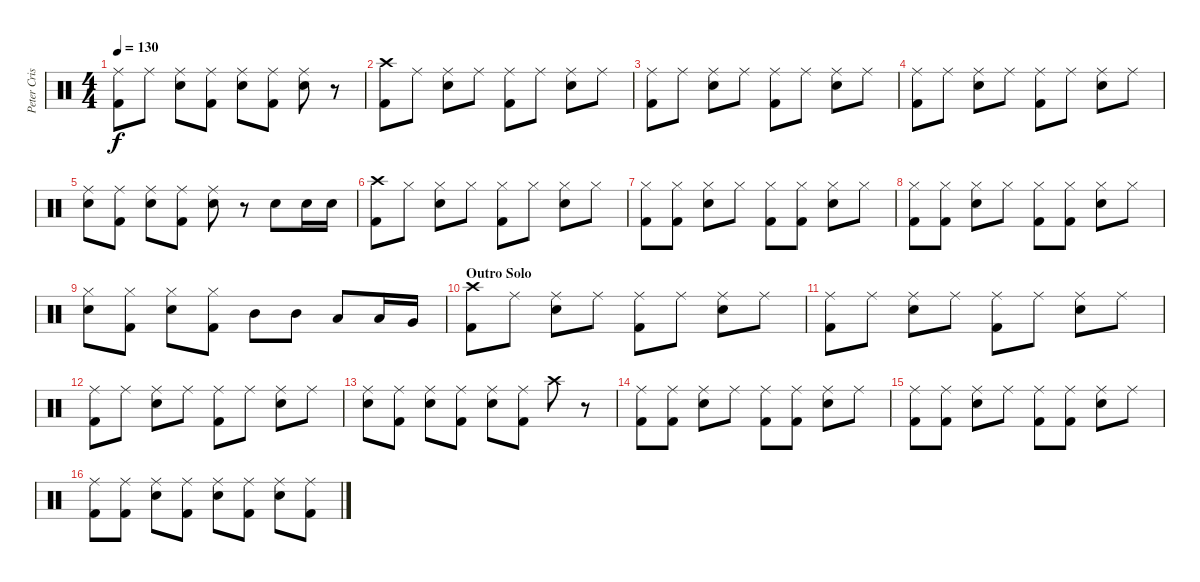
\track ("Peter Criss" "Peter Cris") {instrument percussion}
\staff {score}
\articulation defaults
\ts (4 4)
\tempo 130
\clef neutral
\ks c
("Ride (middle)" "Kick (hit) 2").8{dy f} "Ride (middle)".8 ("Ride (middle)" "Electric Snare (hit)").8 ("Ride (middle)" "Kick (hit) 2").8 ("Ride (middle)" "Electric Snare (hit)").8 ("Ride (middle)" "Kick (hit) 2").8 ("Ride (middle)" "Electric Snare (hit)").8 r.8 |
("Crash high (hit)" "Kick (hit) 2").8 "Ride (middle)".8 ("Ride (middle)" "Electric Snare (hit)").8 "Ride (middle)".8 ("Ride (middle)" "Kick (hit) 2").8 "Ride (middle)".8 ("Ride (middle)" "Electric Snare (hit)").8 "Ride (middle)".8 |
("Ride (middle)" "Kick (hit) 2").8 "Ride (middle)".8 ("Ride (middle)" "Electric Snare (hit)").8 "Ride (middle)".8 ("Ride (middle)" "Kick (hit) 2").8 "Ride (middle)".8 ("Ride (middle)" "Electric Snare (hit)").8 "Ride (middle)".8 |
("Ride (middle)" "Kick (hit) 2").8 "Ride (middle)".8 ("Ride (middle)" "Electric Snare (hit)").8 "Ride (middle)".8 ("Ride (middle)" "Kick (hit) 2").8 "Ride (middle)".8 ("Ride (middle)" "Electric Snare (hit)").8 "Ride (middle)".8 |
("Ride (middle)" "Electric Snare (hit)").8 ("Ride (middle)" "Kick (hit) 2").8 ("Ride (middle)" "Electric Snare (hit)").8 ("Ride (middle)" "Kick (hit) 2").8 ("Ride (middle)" "Electric Snare (hit)").8 r.8 "Electric Snare (hit)".8 "Electric Snare (hit)".16 "Electric Snare (hit)".16 |
("Crash high (hit)" "Kick (hit) 2").8 "Hi-Hat (closed)".8 ("Hi-Hat (closed)" "Electric Snare (hit)").8 "Hi-Hat (closed)".8 ("Hi-Hat (closed)" "Kick (hit) 2").8 "Hi-Hat (closed)".8 ("Hi-Hat (closed)" "Electric Snare (hit)").8 "Hi-Hat (closed)".8 |
("Hi-Hat (closed)" "Kick (hit) 2").8 ("Hi-Hat (closed)" "Kick (hit) 2").8 ("Hi-Hat (closed)" "Electric Snare (hit)").8 "Hi-Hat (closed)".8 ("Hi-Hat (closed)" "Kick (hit) 2").8 ("Hi-Hat (closed)" "Kick (hit) 2").8 ("Hi-Hat (closed)" "Electric Snare (hit)").8 "Hi-Hat (closed)".8 |
("Hi-Hat (closed)" "Kick (hit) 2").8 ("Hi-Hat (closed)" "Kick (hit) 2").8 ("Hi-Hat (closed)" "Electric Snare (hit)").8 "Hi-Hat (closed)".8 ("Hi-Hat (closed)" "Kick (hit) 2").8 ("Hi-Hat (closed)" "Kick (hit) 2").8 ("Hi-Hat (closed)" "Electric Snare (hit)").8 "Hi-Hat (closed)".8 |
("Hi-Hat (closed)" "Electric Snare (hit)").8 ("Hi-Hat (closed)" "Kick (hit) 2").8 ("Hi-Hat (closed)" "Electric Snare (hit)").8 ("Hi-Hat (closed)" "Kick (hit) 2").8 "Mid Tom (hit)".8 "Mid Tom (hit)".8 "Low Tom (hit)".8 "Low Tom (hit)".16 "Very Low Tom (hit)".16 |
\section ("" "Outro Solo")
("Crash high (hit)" "Kick (hit) 2").8 "Ride (middle)".8 ("Ride (middle)" "Electric Snare (hit)").8 "Ride (middle)".8 ("Ride (middle)" "Kick (hit) 2").8 "Ride (middle)".8 ("Ride (middle)" "Electric Snare (hit)").8 "Ride (middle)".8 |
("Ride (middle)" "Kick (hit) 2").8 "Ride (middle)".8 ("Ride (middle)" "Electric Snare (hit)").8 "Ride (middle)".8 ("Ride (middle)" "Kick (hit) 2").8 "Ride (middle)".8 ("Ride (middle)" "Electric Snare (hit)").8 "Ride (middle)".8 |
("Ride (middle)" "Kick (hit) 2").8 "Ride (middle)".8 ("Ride (middle)" "Electric Snare (hit)").8 "Ride (middle)".8 ("Ride (middle)" "Kick (hit) 2").8 "Ride (middle)".8 ("Ride (middle)" "Electric Snare (hit)").8 "Ride (middle)".8 |
("Ride (middle)" "Electric Snare (hit)").8 ("Ride (middle)" "Kick (hit) 2").8 ("Ride (middle)" "Electric Snare (hit)").8 ("Ride (middle)" "Kick (hit) 2").8 ("Ride (middle)" "Electric Snare (hit)").8 ("Ride (middle)" "Kick (hit) 2").8 "Crash high (hit)".8 r.8 |
("Ride (middle)" "Kick (hit) 2").8 ("Ride (middle)" "Kick (hit) 2").8 ("Ride (middle)" "Electric Snare (hit)").8 "Ride (middle)".8 ("Ride (middle)" "Kick (hit) 2").8 ("Ride (middle)" "Kick (hit) 2").8 ("Ride (middle)" "Electric Snare (hit)").8 "Ride (middle)".8 |
("Ride (middle)" "Kick (hit) 2").8 ("Ride (middle)" "Kick (hit) 2").8 ("Ride (middle)" "Electric Snare (hit)").8 "Ride (middle)".8 ("Ride (middle)" "Kick (hit) 2").8 ("Ride (middle)" "Kick (hit) 2").8 ("Ride (middle)" "Electric Snare (hit)").8 "Ride (middle)".8 |
("Ride (middle)" "Kick (hit) 2").8 ("Ride (middle)" "Kick (hit) 2").8 ("Ride (middle)" "Electric Snare (hit)").8 ("Ride (middle)" "Kick (hit) 2").8 ("Ride (middle)" "Electric Snare (hit)").8 ("Ride (middle)" "Kick (hit) 2").8 ("Ride (middle)" "Electric Snare (hit)").8 ("Ride (middle)" "Kick (hit) 2").8
